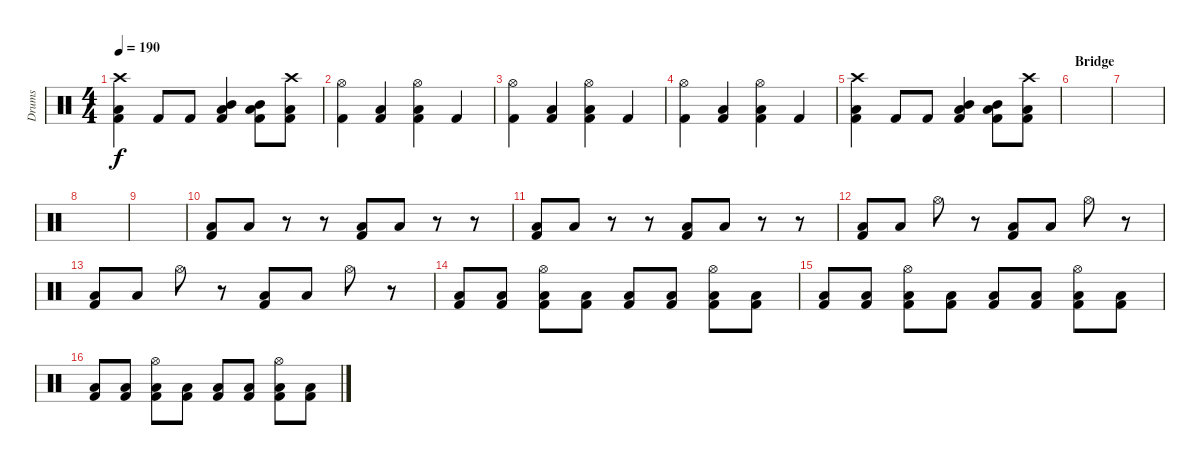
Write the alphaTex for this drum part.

\track ("Drums" "Drums") {instrument percussion}
\staff {score}
\articulation defaults
\ts (4 4)
\tempo 190
\clef neutral
\ks c
("Crash high (hit)" "Low Floor Tom (hit)" "Kick (hit) 2").4{dy f} "Kick (hit) 2".8 "Kick (hit) 2".8 ("Mid Tom (hit)" "Low Floor Tom (hit)" "Kick (hit) 2").4 ("Mid Tom (hit)" "Low Floor Tom (hit)" "Kick (hit) 2").8 ("Crash high (hit)" "Low Floor Tom (hit)" "Kick (hit) 2").8 |
("Hi-Hat (open)" "Kick (hit) 2").4 ("Low Floor Tom (hit)" "Kick (hit) 2").4 ("Hi-Hat (open)" "Low Floor Tom (hit)" "Kick (hit) 2").4 "Kick (hit) 2".4 |
("Hi-Hat (open)" "Kick (hit) 2").4 ("Low Floor Tom (hit)" "Kick (hit) 2").4 ("Hi-Hat (open)" "Low Floor Tom (hit)" "Kick (hit) 2").4 "Kick (hit) 2".4 |
("Hi-Hat (open)" "Kick (hit) 2").4 ("Low Floor Tom (hit)" "Kick (hit) 2").4 ("Hi-Hat (open)" "Low Floor Tom (hit)" "Kick (hit) 2").4 "Kick (hit) 2".4 |
("Crash high (hit)" "Low Floor Tom (hit)" "Kick (hit) 2").4 "Kick (hit) 2".8 "Kick (hit) 2".8 ("Mid Tom (hit)" "Low Floor Tom (hit)" "Kick (hit) 2").4 ("Mid Tom (hit)" "Low Floor Tom (hit)" "Kick (hit) 2").8 ("Crash high (hit)" "Low Floor Tom (hit)" "Kick (hit) 2").8 |
\section ("" "Bridge")
|
|
|
|
("Kick (hit) 2" "Low Floor Tom (hit)").8 "Low Floor Tom (hit)".8 r.8 r.8 ("Kick (hit) 2" "Low Floor Tom (hit)").8 "Low Floor Tom (hit)".8 r.8 r.8 |
("Kick (hit) 2" "Low Floor Tom (hit)").8 "Low Floor Tom (hit)".8 r.8 r.8 ("Kick (hit) 2" "Low Floor Tom (hit)").8 "Low Floor Tom (hit)".8 r.8 r.8 |
("Kick (hit) 2" "Low Floor Tom (hit)").8 "Low Floor Tom (hit)".8 "Hi-Hat (open)".8 r.8 ("Kick (hit) 2" "Low Floor Tom (hit)").8 "Low Floor Tom (hit)".8 "Hi-Hat (open)".8 r.8 |
("Kick (hit) 2" "Low Floor Tom (hit)").8 "Low Floor Tom (hit)".8 "Hi-Hat (open)".8 r.8 ("Kick (hit) 2" "Low Floor Tom (hit)").8 "Low Floor Tom (hit)".8 "Hi-Hat (open)".8 r.8 |
("Kick (hit) 2" "Low Floor Tom (hit)").8 ("Kick (hit) 2" "Low Floor Tom (hit)").8 ("Hi-Hat (open)" "Kick (hit) 2" "Low Floor Tom (hit)").8 ("Kick (hit) 2" "Low Floor Tom (hit)").8 ("Kick (hit) 2" "Low Floor Tom (hit)").8 ("Kick (hit) 2" "Low Floor Tom (hit)").8 ("Hi-Hat (open)" "Kick (hit) 2" "Low Floor Tom (hit)").8 ("Kick (hit) 2" "Low Floor Tom (hit)").8 |
("Kick (hit) 2" "Low Floor Tom (hit)").8 ("Kick (hit) 2" "Low Floor Tom (hit)").8 ("Hi-Hat (open)" "Kick (hit) 2" "Low Floor Tom (hit)").8 ("Kick (hit) 2" "Low Floor Tom (hit)").8 ("Kick (hit) 2" "Low Floor Tom (hit)").8 ("Kick (hit) 2" "Low Floor Tom (hit)").8 ("Hi-Hat (open)" "Kick (hit) 2" "Low Floor Tom (hit)").8 ("Kick (hit) 2" "Low Floor Tom (hit)").8 |
("Kick (hit) 2" "Low Floor Tom (hit)").8 ("Kick (hit) 2" "Low Floor Tom (hit)").8 ("Hi-Hat (open)" "Kick (hit) 2" "Low Floor Tom (hit)").8 ("Kick (hit) 2" "Low Floor Tom (hit)").8 ("Kick (hit) 2" "Low Floor Tom (hit)").8 ("Kick (hit) 2" "Low Floor Tom (hit)").8 ("Hi-Hat (open)" "Kick (hit) 2" "Low Floor Tom (hit)").8 ("Kick (hit) 2" "Low Floor Tom (hit)").8
